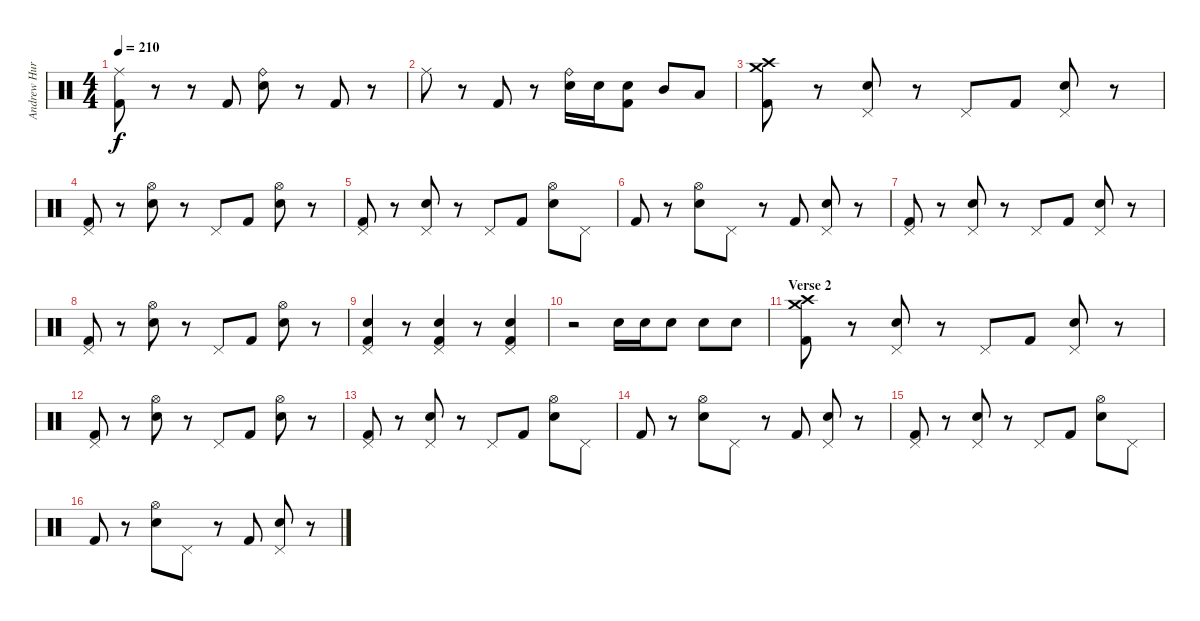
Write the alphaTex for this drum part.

\track ("Andrew Hurley (Drums)" "Andrew Hur") {instrument percussion}
\staff {score}
\articulation defaults
\ts (4 4)
\tempo 210
\clef neutral
\ks c
("Ride (middle)" "Kick (hit) 2").8{dy f} r.8 r.8 "Kick (hit) 2".8 ("Ride (bell)" "Electric Snare (hit)").8 r.8 "Kick (hit) 2".8 r.8 |
"Ride (middle)".8 r.8 "Kick (hit) 2".8 r.8 ("Ride (bell)" "Electric Snare (hit)").16 "Electric Snare (hit)".16 ("Electric Snare (hit)" "Kick (hit) 2").8 "Mid Tom (hit)".8 "Low Tom (hit)".8 |
("Crash high (hit)" "Crash medium (hit)" "Kick (hit) 2").8 r.8 ("Pedal Hi-Hat (hit)" "Electric Snare (hit)").8 r.8 "Pedal Hi-Hat (hit)".8 "Kick (hit) 2".8 ("Pedal Hi-Hat (hit)" "Electric Snare (hit)").8 r.8 |
("Pedal Hi-Hat (hit)" "Kick (hit) 2").8 r.8 ("Hi-Hat (open)" "Electric Snare (hit)").8 r.8 "Pedal Hi-Hat (hit)".8 "Kick (hit) 2".8 ("Hi-Hat (open)" "Electric Snare (hit)").8 r.8 |
("Pedal Hi-Hat (hit)" "Kick (hit) 2").8 r.8 ("Pedal Hi-Hat (hit)" "Electric Snare (hit)").8 r.8 "Pedal Hi-Hat (hit)".8 "Kick (hit) 2".8 ("Hi-Hat (open)" "Electric Snare (hit)").8 "Pedal Hi-Hat (hit)".8 |
"Kick (hit) 2".8 r.8 ("Hi-Hat (open)" "Electric Snare (hit)").8 "Pedal Hi-Hat (hit)".8 r.8 "Kick (hit) 2".8 ("Pedal Hi-Hat (hit)" "Electric Snare (hit)").8 r.8 |
("Pedal Hi-Hat (hit)" "Kick (hit) 2").8 r.8 ("Pedal Hi-Hat (hit)" "Electric Snare (hit)").8 r.8 "Pedal Hi-Hat (hit)".8 "Kick (hit) 2".8 ("Pedal Hi-Hat (hit)" "Electric Snare (hit)").8 r.8 |
("Pedal Hi-Hat (hit)" "Kick (hit) 2").8 r.8 ("Hi-Hat (open)" "Electric Snare (hit)").8 r.8 "Pedal Hi-Hat (hit)".8 "Kick (hit) 2".8 ("Hi-Hat (open)" "Electric Snare (hit)").8 r.8 |
("Pedal Hi-Hat (hit)" "Electric Snare (hit)" "Kick (hit) 2").4 r.8 ("Pedal Hi-Hat (hit)" "Electric Snare (hit)" "Kick (hit) 2").4 r.8 ("Pedal Hi-Hat (hit)" "Electric Snare (hit)" "Kick (hit) 2").4 |
r.2 "Electric Snare (hit)".16 "Electric Snare (hit)".16 "Electric Snare (hit)".8 "Electric Snare (hit)".8 "Electric Snare (hit)".8 |
\section ("" "Verse 2")
("Crash high (hit)" "Crash medium (hit)" "Kick (hit) 2").8 r.8 ("Pedal Hi-Hat (hit)" "Electric Snare (hit)").8 r.8 "Pedal Hi-Hat (hit)".8 "Kick (hit) 2".8 ("Pedal Hi-Hat (hit)" "Electric Snare (hit)").8 r.8 |
("Pedal Hi-Hat (hit)" "Kick (hit) 2").8 r.8 ("Hi-Hat (open)" "Electric Snare (hit)").8 r.8 "Pedal Hi-Hat (hit)".8 "Kick (hit) 2".8 ("Hi-Hat (open)" "Electric Snare (hit)").8 r.8 |
("Pedal Hi-Hat (hit)" "Kick (hit) 2").8 r.8 ("Pedal Hi-Hat (hit)" "Electric Snare (hit)").8 r.8 "Pedal Hi-Hat (hit)".8 "Kick (hit) 2".8 ("Hi-Hat (open)" "Electric Snare (hit)").8 "Pedal Hi-Hat (hit)".8 |
"Kick (hit) 2".8 r.8 ("Hi-Hat (open)" "Electric Snare (hit)").8 "Pedal Hi-Hat (hit)".8 r.8 "Kick (hit) 2".8 ("Pedal Hi-Hat (hit)" "Electric Snare (hit)").8 r.8 |
("Pedal Hi-Hat (hit)" "Kick (hit) 2").8 r.8 ("Pedal Hi-Hat (hit)" "Electric Snare (hit)").8 r.8 "Pedal Hi-Hat (hit)".8 "Kick (hit) 2".8 ("Hi-Hat (open)" "Electric Snare (hit)").8 "Pedal Hi-Hat (hit)".8 |
"Kick (hit) 2".8 r.8 ("Hi-Hat (open)" "Electric Snare (hit)").8 "Pedal Hi-Hat (hit)".8 r.8 "Kick (hit) 2".8 ("Pedal Hi-Hat (hit)" "Electric Snare (hit)").8 r.8
